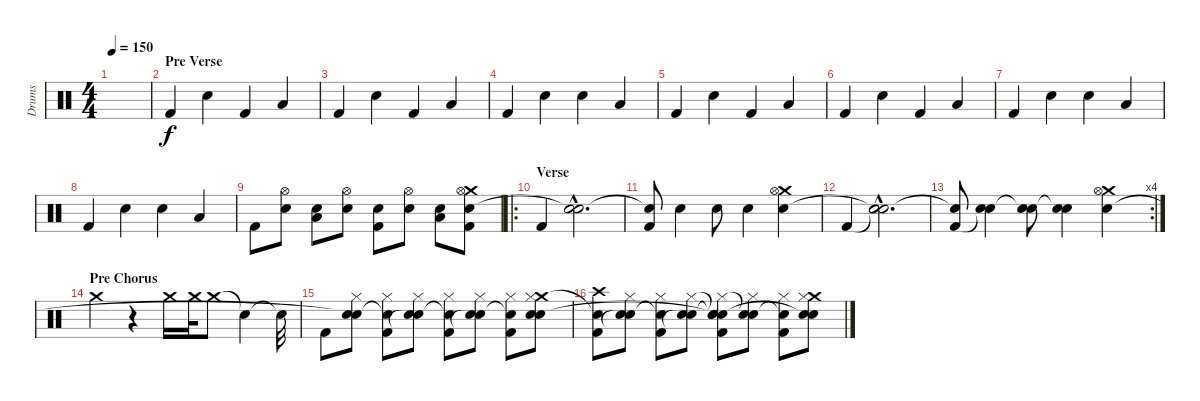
\track ("Drums" "Drums") {instrument percussion}
\staff {score}
\articulation defaults
\ts (4 4)
\tempo 150
\clef neutral
\ks c
|
\section ("" "Pre Verse")
"Kick (hit) 2".4 "Snare (hit) 2".4 "Kick (hit) 2".4 "Low Floor Tom (hit)".4 |
"Kick (hit) 2".4 "Snare (hit) 2".4 "Kick (hit) 2".4 "Low Floor Tom (hit)".4 |
"Kick (hit) 2".4 "Snare (hit) 2".4 "Snare (hit) 2".4 "Low Floor Tom (hit)".4 |
"Kick (hit) 2".4 "Snare (hit) 2".4 "Kick (hit) 2".4 "Low Floor Tom (hit)".4 |
"Kick (hit) 2".4 "Snare (hit) 2".4 "Kick (hit) 2".4 "Low Floor Tom (hit)".4 |
"Kick (hit) 2".4 "Snare (hit) 2".4 "Snare (hit) 2".4 "Low Floor Tom (hit)".4 |
"Kick (hit) 2".4 "Snare (hit) 2".4 "Snare (hit) 2".4 "Low Floor Tom (hit)".4 |
"Kick (hit) 2".8 ("Snare (hit) 2" "Hi-Hat (open)").8 ("Low Floor Tom (hit)" "Snare (hit) 2").8 ("Snare (hit) 2" "Hi-Hat (open)").8 ("Snare (hit) 2" "Kick (hit) 2").8 ("Snare (hit) 2" "Hi-Hat (open)").8 ("Low Floor Tom (hit)" "Snare (hit) 2").8 ("Crash medium (hit)" "Snare (hit) 2" "Hi-Hat (open)" "Kick (hit) 2").8 |
\ro
\section ("" "Verse")
"Kick (hit) 2".4 ("Snare (hit) 2"{hac} "Snare (hit)"{hac t}).2{d} |
("Snare (hit)"{t} "Kick (hit) 2").8 "Snare (hit) 2".4 "Snare (hit) 2".8 "Snare (hit) 2".4 ("Crash medium (hit)" "Hi-Hat (open)" "Snare (hit) 2").4 |
"Kick (hit) 2".4 ("Snare (hit)"{hac t} "Snare (hit) 2"{hac} "Snare (hit)"{hac t}).2{d} |
\rc 4
("Snare (hit)"{t} "Kick (hit) 2").8 ("Snare (hit) 2" "Snare (hit)"{t}).4 ("Snare (hit)"{t} "Snare (hit) 2").8 ("Snare (hit) 2" "Snare (hit)"{t}).4 ("Crash medium (hit)" "Hi-Hat (open)" "Snare (hit) 2").4 |
\section ("" "Pre Chorus")
"Crash medium (hit)".4 r.4 "Crash medium (hit)".16 "Crash medium (hit)".32 "Crash medium (hit)".8 "Snare (hit)"{t}.4 "Snare (hit)"{t}.32 |
"Kick (hit) 2".8 ("Hi-Hat (closed)" "Snare (hit) 2" "Snare (hit)"{t}).8 ("Hi-Hat (closed)" "Snare (hit)"{t} "Kick (hit) 2").8 ("Hi-Hat (closed)" "Snare (hit) 2" "Snare (hit)"{t}).8 ("Hi-Hat (closed)" "Snare (hit)"{t} "Kick (hit) 2").8 ("Hi-Hat (closed)" "Snare (hit) 2" "Snare (hit)"{t}).8 ("Hi-Hat (closed)" "Snare (hit)"{t} "Kick (hit) 2").8 ("Crash medium (hit)" "Hi-Hat (closed)" "Snare (hit) 2" "Snare (hit)").8 |
("Crash high (hit)" "Snare (hit)"{t} "Kick (hit) 2").8 ("Hi-Hat (closed)" "Snare (hit) 2" "Snare (hit)"{t}).8 ("Hi-Hat (closed)" "Snare (hit) 2"{t} "Kick (hit) 2").8 ("Hi-Hat (closed)" "Snare (hit) 2" "Snare (hit)"{t}).8 ("Snare (hit)"{t} "Snare (hit)"{t} "Hi-Hat (closed)" "Snare (hit) 2"{t} "Kick (hit) 2").8 ("Hi-Hat (closed)" "Snare (hit) 2" "Snare (hit)"{t}).8 ("Hi-Hat (closed)" "Snare (hit)"{t} "Kick (hit) 2").8 ("Crash medium (hit)" "Hi-Hat (closed)" "Snare (hit) 2" "Snare (hit)"{t}).8
